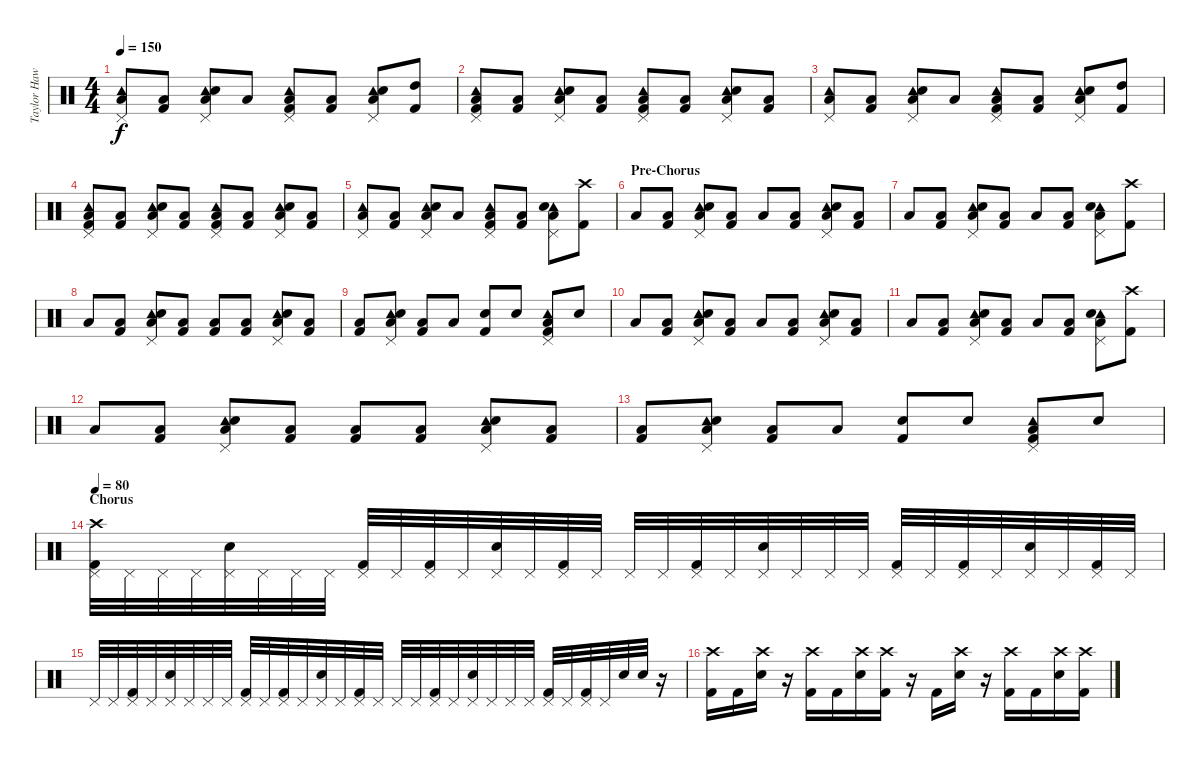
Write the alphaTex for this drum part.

\track ("Taylor Hawkins" "Taylor Haw") {instrument percussion}
\staff {score}
\articulation defaults
\ts (4 4)
\tempo 150
\clef neutral
\ks c
("Pedal Hi-Hat (hit)" "Tambourine (hit)" "Low Floor Tom (hit)").8{dy f} ("Low Floor Tom (hit)" "Kick (hit) 2").8 ("Pedal Hi-Hat (hit)" "Tambourine (hit)" "Low Floor Tom (hit)" "Snare (hit) 2").8 "Low Floor Tom (hit)".8 ("Pedal Hi-Hat (hit)" "Tambourine (hit)" "Low Floor Tom (hit)" "Kick (hit) 2").8 ("Low Floor Tom (hit)" "Kick (hit) 2").8 ("Pedal Hi-Hat (hit)" "Tambourine (hit)" "Low Floor Tom (hit)" "Snare (hit) 2").8 ("High Tom (hit)" "Kick (hit) 2").8 |
("Pedal Hi-Hat (hit)" "Tambourine (hit)" "Low Floor Tom (hit)" "Kick (hit) 2").8 ("Low Floor Tom (hit)" "Kick (hit) 2").8 ("Pedal Hi-Hat (hit)" "Tambourine (hit)" "Low Floor Tom (hit)" "Snare (hit) 2").8 ("Low Floor Tom (hit)" "Kick (hit) 2").8 ("Pedal Hi-Hat (hit)" "Tambourine (hit)" "Low Floor Tom (hit)" "Kick (hit) 2").8 ("Low Floor Tom (hit)" "Kick (hit) 2").8 ("Pedal Hi-Hat (hit)" "Tambourine (hit)" "Low Floor Tom (hit)" "Snare (hit) 2").8 ("Low Floor Tom (hit)" "Kick (hit) 2").8 |
("Pedal Hi-Hat (hit)" "Tambourine (hit)" "Low Floor Tom (hit)").8 ("Low Floor Tom (hit)" "Kick (hit) 2").8 ("Pedal Hi-Hat (hit)" "Tambourine (hit)" "Low Floor Tom (hit)" "Snare (hit) 2").8 "Low Floor Tom (hit)".8 ("Pedal Hi-Hat (hit)" "Tambourine (hit)" "Low Floor Tom (hit)" "Kick (hit) 2").8 ("Low Floor Tom (hit)" "Kick (hit) 2").8 ("Pedal Hi-Hat (hit)" "Tambourine (hit)" "Low Floor Tom (hit)" "Snare (hit) 2").8 ("High Tom (hit)" "Kick (hit) 2").8 |
("Pedal Hi-Hat (hit)" "Tambourine (hit)" "Low Floor Tom (hit)" "Kick (hit) 2").8 ("Low Floor Tom (hit)" "Kick (hit) 2").8 ("Pedal Hi-Hat (hit)" "Tambourine (hit)" "Low Floor Tom (hit)" "Snare (hit) 2").8 ("Low Floor Tom (hit)" "Kick (hit) 2").8 ("Pedal Hi-Hat (hit)" "Tambourine (hit)" "Low Floor Tom (hit)" "Kick (hit) 2").8 ("Low Floor Tom (hit)" "Kick (hit) 2").8 ("Pedal Hi-Hat (hit)" "Tambourine (hit)" "Low Floor Tom (hit)" "Snare (hit) 2").8 ("Low Floor Tom (hit)" "Kick (hit) 2").8 |
("Pedal Hi-Hat (hit)" "Tambourine (hit)" "Low Floor Tom (hit)").8 ("Low Floor Tom (hit)" "Kick (hit) 2").8 ("Pedal Hi-Hat (hit)" "Tambourine (hit)" "Low Floor Tom (hit)" "Snare (hit) 2").8 "Low Floor Tom (hit)".8 ("Pedal Hi-Hat (hit)" "Tambourine (hit)" "Low Floor Tom (hit)" "Kick (hit) 2").8 ("Low Floor Tom (hit)" "Kick (hit) 2").8 ("Pedal Hi-Hat (hit)" "Tambourine (hit)" "Low Floor Tom (hit)" "Snare (hit) 2").8 ("Crash high (hit)" "Kick (hit) 2").8 |
\section ("" "Pre-Chorus")
"Low Floor Tom (hit)".8 ("Low Floor Tom (hit)" "Kick (hit) 2").8 ("Pedal Hi-Hat (hit)" "Tambourine (hit)" "Low Floor Tom (hit)" "Snare (hit) 2").8 ("Low Floor Tom (hit)" "Kick (hit) 2").8 "Low Floor Tom (hit)".8 ("Low Floor Tom (hit)" "Kick (hit) 2").8 ("Pedal Hi-Hat (hit)" "Tambourine (hit)" "Low Floor Tom (hit)" "Snare (hit) 2").8 ("Low Floor Tom (hit)" "Kick (hit) 2").8 |
"Low Floor Tom (hit)".8 ("Low Floor Tom (hit)" "Kick (hit) 2").8 ("Pedal Hi-Hat (hit)" "Tambourine (hit)" "Low Floor Tom (hit)" "Snare (hit) 2").8 ("Low Floor Tom (hit)" "Kick (hit) 2").8 "Low Floor Tom (hit)".8 ("Low Floor Tom (hit)" "Kick (hit) 2").8 ("Pedal Hi-Hat (hit)" "Tambourine (hit)" "Low Floor Tom (hit)" "Snare (hit) 2").8 ("Crash high (hit)" "Kick (hit) 2").8 |
"Low Floor Tom (hit)".8 ("Low Floor Tom (hit)" "Kick (hit) 2").8 ("Pedal Hi-Hat (hit)" "Tambourine (hit)" "Low Floor Tom (hit)" "Snare (hit) 2").8 ("Low Floor Tom (hit)" "Kick (hit) 2").8 ("Low Floor Tom (hit)" "Kick (hit) 2").8 ("Low Floor Tom (hit)" "Kick (hit) 2").8 ("Pedal Hi-Hat (hit)" "Tambourine (hit)" "Low Floor Tom (hit)" "Snare (hit) 2").8 ("Low Floor Tom (hit)" "Kick (hit) 2").8 |
("Low Floor Tom (hit)" "Kick (hit) 2").8 ("Pedal Hi-Hat (hit)" "Tambourine (hit)" "Low Floor Tom (hit)" "Snare (hit) 2").8 ("Low Floor Tom (hit)" "Kick (hit) 2").8 "Low Floor Tom (hit)".8 ("Snare (hit) 2" "Kick (hit) 2").8 "Snare (hit) 2".8 ("Pedal Hi-Hat (hit)" "Tambourine (hit)" "Low Floor Tom (hit)" "Kick (hit) 2").8 "Snare (hit) 2".8 |
"Low Floor Tom (hit)".8 ("Low Floor Tom (hit)" "Kick (hit) 2").8 ("Pedal Hi-Hat (hit)" "Tambourine (hit)" "Low Floor Tom (hit)" "Snare (hit) 2").8 ("Low Floor Tom (hit)" "Kick (hit) 2").8 "Low Floor Tom (hit)".8 ("Low Floor Tom (hit)" "Kick (hit) 2").8 ("Pedal Hi-Hat (hit)" "Tambourine (hit)" "Low Floor Tom (hit)" "Snare (hit) 2").8 ("Low Floor Tom (hit)" "Kick (hit) 2").8 |
"Low Floor Tom (hit)".8 ("Low Floor Tom (hit)" "Kick (hit) 2").8 ("Pedal Hi-Hat (hit)" "Tambourine (hit)" "Low Floor Tom (hit)" "Snare (hit) 2").8 ("Low Floor Tom (hit)" "Kick (hit) 2").8 "Low Floor Tom (hit)".8 ("Low Floor Tom (hit)" "Kick (hit) 2").8 ("Pedal Hi-Hat (hit)" "Tambourine (hit)" "Low Floor Tom (hit)" "Snare (hit) 2").8 ("Crash high (hit)" "Kick (hit) 2").8 |
"Low Floor Tom (hit)".8 ("Low Floor Tom (hit)" "Kick (hit) 2").8 ("Pedal Hi-Hat (hit)" "Tambourine (hit)" "Low Floor Tom (hit)" "Snare (hit) 2").8 ("Low Floor Tom (hit)" "Kick (hit) 2").8 ("Low Floor Tom (hit)" "Kick (hit) 2").8 ("Low Floor Tom (hit)" "Kick (hit) 2").8 ("Pedal Hi-Hat (hit)" "Tambourine (hit)" "Low Floor Tom (hit)" "Snare (hit) 2").8 ("Low Floor Tom (hit)" "Kick (hit) 2").8 |
("Low Floor Tom (hit)" "Kick (hit) 2").8 ("Pedal Hi-Hat (hit)" "Tambourine (hit)" "Low Floor Tom (hit)" "Snare (hit) 2").8 ("Low Floor Tom (hit)" "Kick (hit) 2").8 "Low Floor Tom (hit)".8 ("Snare (hit) 2" "Kick (hit) 2").8 "Snare (hit) 2".8 ("Pedal Hi-Hat (hit)" "Tambourine (hit)" "Low Floor Tom (hit)" "Kick (hit) 2").8 "Snare (hit) 2".8 |
\section ("" "Chorus")
\tempo 80
("Crash high (hit)" "Pedal Hi-Hat (hit)" "Kick (hit) 2").32 "Pedal Hi-Hat (hit)".32 "Pedal Hi-Hat (hit)".32 "Pedal Hi-Hat (hit)".32 ("Pedal Hi-Hat (hit)" "Snare (hit) 2").32 "Pedal Hi-Hat (hit)".32 "Pedal Hi-Hat (hit)".32 "Pedal Hi-Hat (hit)".32 ("Pedal Hi-Hat (hit)" "Kick (hit) 2").32 "Pedal Hi-Hat (hit)".32 ("Pedal Hi-Hat (hit)" "Kick (hit) 2").32 "Pedal Hi-Hat (hit)".32 ("Pedal Hi-Hat (hit)" "Snare (hit) 2").32 "Pedal Hi-Hat (hit)".32 ("Pedal Hi-Hat (hit)" "Kick (hit) 2").32 "Pedal Hi-Hat (hit)".32 "Pedal Hi-Hat (hit)".32 "Pedal Hi-Hat (hit)".32 ("Pedal Hi-Hat (hit)" "Kick (hit) 2").32 "Pedal Hi-Hat (hit)".32 ("Pedal Hi-Hat (hit)" "Snare (hit) 2").32 "Pedal Hi-Hat (hit)".32 "Pedal Hi-Hat (hit)".32 "Pedal Hi-Hat (hit)".32 ("Pedal Hi-Hat (hit)" "Kick (hit) 2").32 "Pedal Hi-Hat (hit)".32 ("Pedal Hi-Hat (hit)" "Kick (hit) 2").32 "Pedal Hi-Hat (hit)".32 ("Pedal Hi-Hat (hit)" "Snare (hit) 2").32 "Pedal Hi-Hat (hit)".32 ("Pedal Hi-Hat (hit)" "Kick (hit) 2").32 "Pedal Hi-Hat (hit)".32 |
"Pedal Hi-Hat (hit)".32 "Pedal Hi-Hat (hit)".32 ("Pedal Hi-Hat (hit)" "Kick (hit) 2").32 "Pedal Hi-Hat (hit)".32 ("Pedal Hi-Hat (hit)" "Snare (hit) 2").32 "Pedal Hi-Hat (hit)".32 "Pedal Hi-Hat (hit)".32 "Pedal Hi-Hat (hit)".32 ("Pedal Hi-Hat (hit)" "Kick (hit) 2").32 "Pedal Hi-Hat (hit)".32 ("Pedal Hi-Hat (hit)" "Kick (hit) 2").32 "Pedal Hi-Hat (hit)".32 ("Pedal Hi-Hat (hit)" "Snare (hit) 2").32 "Pedal Hi-Hat (hit)".32 ("Pedal Hi-Hat (hit)" "Kick (hit) 2").32 "Pedal Hi-Hat (hit)".32 "Pedal Hi-Hat (hit)".32 "Pedal Hi-Hat (hit)".32 ("Pedal Hi-Hat (hit)" "Kick (hit) 2").32 "Pedal Hi-Hat (hit)".32 ("Pedal Hi-Hat (hit)" "Snare (hit) 2").32 "Pedal Hi-Hat (hit)".32 "Pedal Hi-Hat (hit)".32 "Pedal Hi-Hat (hit)".32 ("Pedal Hi-Hat (hit)" "Kick (hit) 2").32 "Pedal Hi-Hat (hit)".32 ("Pedal Hi-Hat (hit)" "Kick (hit) 2").32 "Pedal Hi-Hat (hit)".32 "Snare (hit) 2".32 "Snare (hit) 2".32 r.16 |
("Crash high (hit)" "Kick (hit) 2").16 "Kick (hit) 2".16 ("Crash high (hit)" "Snare (hit) 2").16 r.16 ("Crash high (hit)" "Kick (hit) 2").16 "Kick (hit) 2".16 ("Crash high (hit)" "Snare (hit) 2").16 ("Crash high (hit)" "Kick (hit) 2").16 r.16 "Kick (hit) 2".16 ("Crash high (hit)" "Snare (hit) 2").16 r.16 ("Crash high (hit)" "Kick (hit) 2").16 "Kick (hit) 2".16 ("Crash high (hit)" "Snare (hit) 2").16 ("Crash high (hit)" "Kick (hit) 2").16
